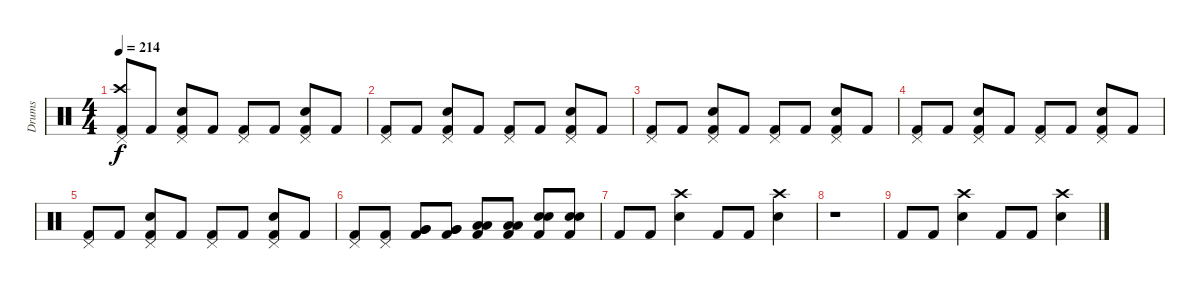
\track ("Drums" "Drums") {instrument percussion}
\staff {score}
\articulation defaults
\ts (4 4)
\tempo 214
\clef neutral
\ks c
("Pedal Hi-Hat (hit)" "Crash high (hit)" "Kick (hit) 2").8{dy f} "Kick (hit) 2".8 ("Pedal Hi-Hat (hit)" "Electric Snare (hit)" "Kick (hit) 2").8 "Kick (hit) 2".8 ("Pedal Hi-Hat (hit)" "Kick (hit) 2").8 "Kick (hit) 2".8 ("Pedal Hi-Hat (hit)" "Electric Snare (hit)" "Kick (hit) 2").8 "Kick (hit) 2".8 |
("Pedal Hi-Hat (hit)" "Kick (hit) 2").8 "Kick (hit) 2".8 ("Pedal Hi-Hat (hit)" "Electric Snare (hit)" "Kick (hit) 2").8 "Kick (hit) 2".8 ("Pedal Hi-Hat (hit)" "Kick (hit) 2").8 "Kick (hit) 2".8 ("Pedal Hi-Hat (hit)" "Electric Snare (hit)" "Kick (hit) 2").8 "Kick (hit) 2".8 |
("Pedal Hi-Hat (hit)" "Kick (hit) 2").8 "Kick (hit) 2".8 ("Pedal Hi-Hat (hit)" "Electric Snare (hit)" "Kick (hit) 2").8 "Kick (hit) 2".8 ("Pedal Hi-Hat (hit)" "Kick (hit) 2").8 "Kick (hit) 2".8 ("Pedal Hi-Hat (hit)" "Electric Snare (hit)" "Kick (hit) 2").8 "Kick (hit) 2".8 |
("Pedal Hi-Hat (hit)" "Kick (hit) 2").8 "Kick (hit) 2".8 ("Pedal Hi-Hat (hit)" "Electric Snare (hit)" "Kick (hit) 2").8 "Kick (hit) 2".8 ("Pedal Hi-Hat (hit)" "Kick (hit) 2").8 "Kick (hit) 2".8 ("Pedal Hi-Hat (hit)" "Electric Snare (hit)" "Kick (hit) 2").8 "Kick (hit) 2".8 |
("Pedal Hi-Hat (hit)" "Kick (hit) 2").8 "Kick (hit) 2".8 ("Pedal Hi-Hat (hit)" "Electric Snare (hit)" "Kick (hit) 2").8 "Kick (hit) 2".8 ("Pedal Hi-Hat (hit)" "Kick (hit) 2").8 "Kick (hit) 2".8 ("Pedal Hi-Hat (hit)" "Electric Snare (hit)" "Kick (hit) 2").8 "Kick (hit) 2".8 |
("Pedal Hi-Hat (hit)" "Kick (hit) 2").8 ("Pedal Hi-Hat (hit)" "Kick (hit) 2").8 ("Very Low Tom (hit)" "Very Low Tom (hit)" "Kick (hit) 2").8 ("Very Low Tom (hit)" "Very Low Tom (hit)" "Kick (hit) 2").8 ("Low Floor Tom (hit)" "Low Floor Tom (hit)" "Kick (hit) 2").8 ("Low Floor Tom (hit)" "Low Floor Tom (hit)" "Kick (hit) 2").8 ("Electric Snare (hit)" "Electric Snare (hit)" "Kick (hit) 2").8 ("Electric Snare (hit)" "Electric Snare (hit)" "Kick (hit) 2").8 |
"Kick (hit) 2".8 "Kick (hit) 2".8 ("Crash high (hit)" "Electric Snare (hit)").4 "Kick (hit) 2".8 "Kick (hit) 2".8 ("Crash high (hit)" "Electric Snare (hit)").4 |
r.1 |
"Kick (hit) 2".8 "Kick (hit) 2".8 ("Crash high (hit)" "Electric Snare (hit)").4 "Kick (hit) 2".8 "Kick (hit) 2".8 ("Crash high (hit)" "Electric Snare (hit)").4
